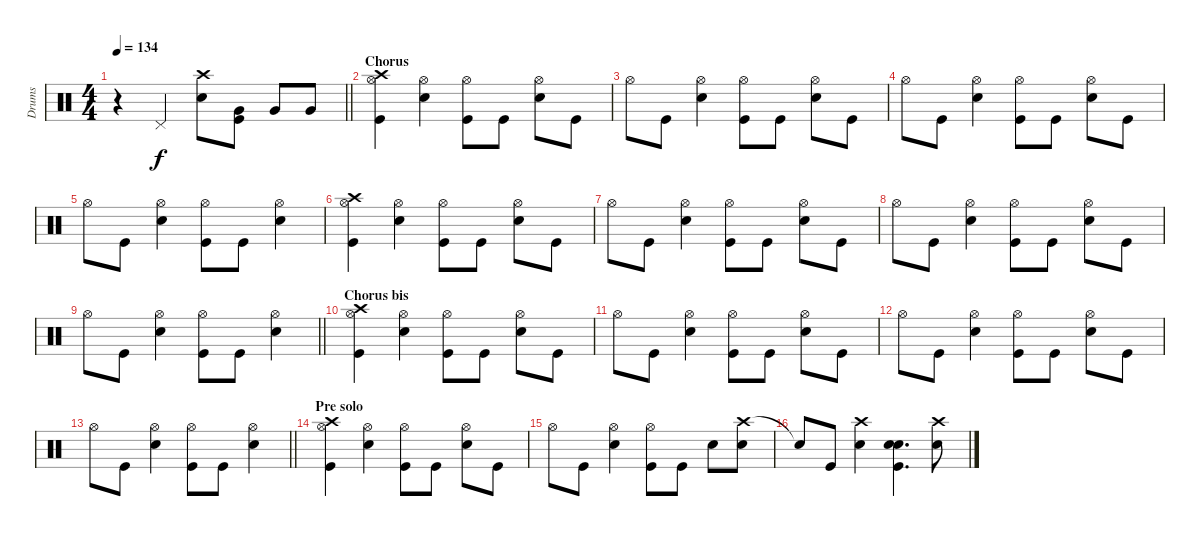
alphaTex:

\track ("Drums" "Drums") {instrument percussion}
\staff {score}
\articulation defaults
\ts (4 4)
\tempo 134
\clef neutral
\barLineRight lightlight
\ks c
r.4{dy f} "Pedal Hi-Hat (hit)".4 ("Crash high (hit)" "Electric Snare (hit)").8 ("Very Low Tom (hit)" "Kick (hit)").8 "Very Low Tom (hit)".8 "Very Low Tom (hit)".8 |
\section ("" "Chorus")
("Crash high (hit)" "Hi-Hat (open)" "Kick (hit)").4 ("Hi-Hat (open)" "Snare (hit) 2").4 ("Hi-Hat (open)" "Kick (hit)").8 "Kick (hit)".8 ("Hi-Hat (open)" "Snare (hit) 2").8 "Kick (hit)".8 |
"Hi-Hat (open)".8 "Kick (hit)".8 ("Hi-Hat (open)" "Snare (hit) 2").4 ("Hi-Hat (open)" "Kick (hit)").8 "Kick (hit)".8 ("Hi-Hat (open)" "Snare (hit) 2").8 "Kick (hit)".8 |
"Hi-Hat (open)".8 "Kick (hit)".8 ("Hi-Hat (open)" "Snare (hit) 2").4 ("Hi-Hat (open)" "Kick (hit)").8 "Kick (hit)".8 ("Hi-Hat (open)" "Snare (hit) 2").8 "Kick (hit)".8 |
"Hi-Hat (open)".8 "Kick (hit)".8 ("Hi-Hat (open)" "Snare (hit) 2").4 ("Hi-Hat (open)" "Kick (hit)").8 "Kick (hit)".8 ("Hi-Hat (open)" "Snare (hit) 2").4 |
("Crash high (hit)" "Hi-Hat (open)" "Kick (hit)").4 ("Hi-Hat (open)" "Snare (hit) 2").4 ("Hi-Hat (open)" "Kick (hit)").8 "Kick (hit)".8 ("Hi-Hat (open)" "Snare (hit) 2").8 "Kick (hit)".8 |
"Hi-Hat (open)".8 "Kick (hit)".8 ("Hi-Hat (open)" "Snare (hit) 2").4 ("Hi-Hat (open)" "Kick (hit)").8 "Kick (hit)".8 ("Hi-Hat (open)" "Snare (hit) 2").8 "Kick (hit)".8 |
"Hi-Hat (open)".8 "Kick (hit)".8 ("Hi-Hat (open)" "Snare (hit) 2").4 ("Hi-Hat (open)" "Kick (hit)").8 "Kick (hit)".8 ("Hi-Hat (open)" "Snare (hit) 2").8 "Kick (hit)".8 |
\barLineRight lightlight "Hi-Hat (open)".8 "Kick (hit)".8
("Hi-Hat (open)" "Snare (hit) 2").4 ("Hi-Hat (open)" "Kick (hit)").8 "Kick (hit)".8 ("Hi-Hat (open)" "Snare (hit) 2").4 |
\section ("" "Chorus bis")
("Crash high (hit)" "Hi-Hat (open)" "Kick (hit)").4 ("Hi-Hat (open)" "Snare (hit) 2").4 ("Hi-Hat (open)" "Kick (hit)").8 "Kick (hit)".8 ("Hi-Hat (open)" "Snare (hit) 2").8 "Kick (hit)".8 |
"Hi-Hat (open)".8 "Kick (hit)".8 ("Hi-Hat (open)" "Snare (hit) 2").4 ("Hi-Hat (open)" "Kick (hit)").8 "Kick (hit)".8 ("Hi-Hat (open)" "Snare (hit) 2").8 "Kick (hit)".8 |
"Hi-Hat (open)".8 "Kick (hit)".8 ("Hi-Hat (open)" "Snare (hit) 2").4 ("Hi-Hat (open)" "Kick (hit)").8 "Kick (hit)".8 ("Hi-Hat (open)" "Snare (hit) 2").8 "Kick (hit)".8 |
\barLineRight lightlight "Hi-Hat (open)".8 "Kick (hit)".8
("Hi-Hat (open)" "Snare (hit) 2").4 ("Hi-Hat (open)" "Kick (hit)").8 "Kick (hit)".8 ("Hi-Hat (open)" "Snare (hit) 2").4 |
\section ("" "Pre solo")
("Crash high (hit)" "Hi-Hat (open)" "Kick (hit)").4 ("Hi-Hat (open)" "Snare (hit) 2").4 ("Hi-Hat (open)" "Kick (hit)").8 "Kick (hit)".8 ("Hi-Hat (open)" "Snare (hit) 2").8 "Kick (hit)".8 |
"Hi-Hat (open)".8 "Kick (hit)".8 ("Hi-Hat (open)" "Snare (hit) 2").4 ("Hi-Hat (open)" "Kick (hit)").8 "Kick (hit)".8 "Snare (hit) 2".8 ("Crash high (hit)" "Snare (hit) 2").8 |
"Snare (hit)"{t}.8 "Kick (hit)".8 ("Crash high (hit)" "Snare (hit) 2").4 ("Snare (hit) 2" "Electric Snare (hit)" "Kick (hit)").4{d} ("Crash high (hit)" "Snare (hit) 2").8
